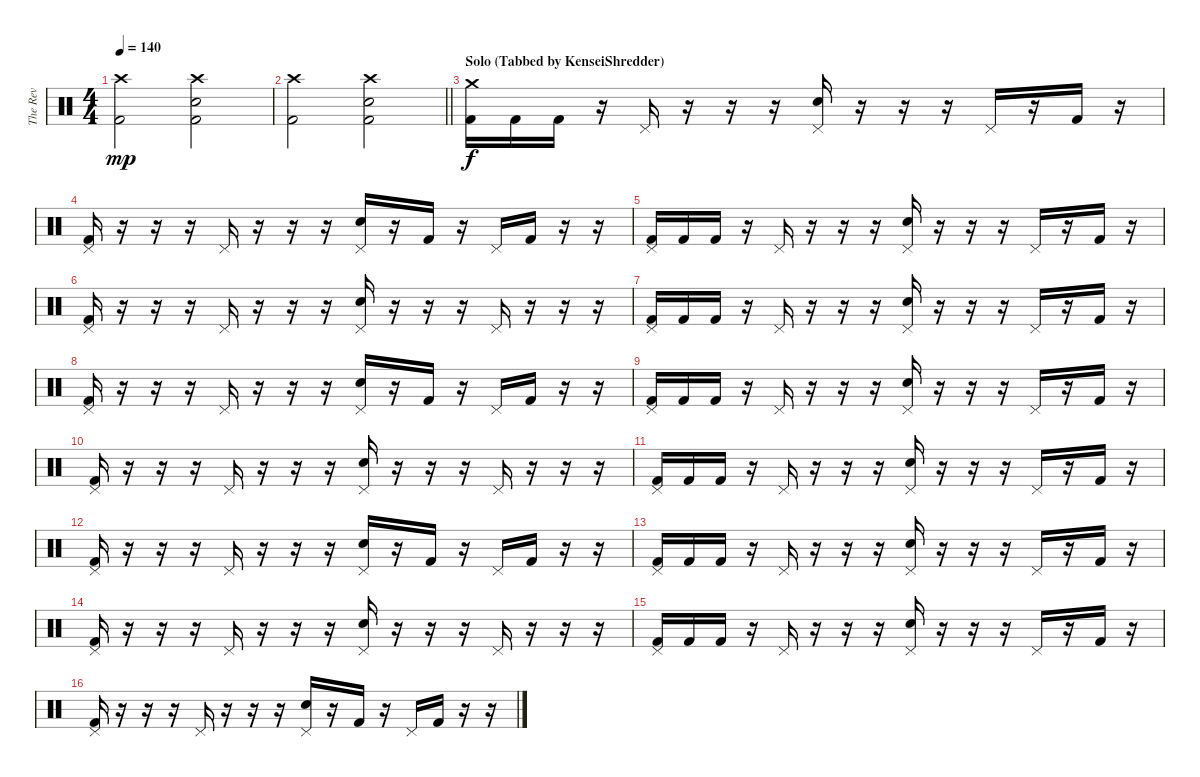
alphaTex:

\track ("The Rev" "The Rev") {instrument percussion}
\staff {score}
\articulation defaults
\ts (4 4)
\tempo 140
\clef neutral
\ks c
("Crash high (hit)" "Kick (hit) 2").2{dy mp} ("Crash high (hit)" "Electric Snare (hit)" "Kick (hit) 2").2 |
\barLineRight lightlight
("Crash high (hit)" "Kick (hit) 2").2 ("Crash high (hit)" "Electric Snare (hit)" "Kick (hit) 2").2 |
\section ("" "Solo (Tabbed by KenseiShredder)")
("Crash medium (hit)" "Kick (hit) 2").16{dy f} "Kick (hit) 2".16 "Kick (hit) 2".16 r.16 "Pedal Hi-Hat (hit)".16 r.16 r.16 r.16 ("Pedal Hi-Hat (hit)" "Electric Snare (hit)").16 r.16 r.16 r.16 "Pedal Hi-Hat (hit)".16 r.16 "Kick (hit) 2".16 r.16 |
("Pedal Hi-Hat (hit)" "Kick (hit) 2").16 r.16 r.16 r.16 "Pedal Hi-Hat (hit)".16 r.16 r.16 r.16 ("Pedal Hi-Hat (hit)" "Electric Snare (hit)").16 r.16 "Kick (hit) 2".16 r.16 "Pedal Hi-Hat (hit)".16 "Kick (hit) 2".16 r.16 r.16 |
("Pedal Hi-Hat (hit)" "Kick (hit) 2").16 "Kick (hit) 2".16 "Kick (hit) 2".16 r.16 "Pedal Hi-Hat (hit)".16 r.16 r.16 r.16 ("Pedal Hi-Hat (hit)" "Electric Snare (hit)").16 r.16 r.16 r.16 "Pedal Hi-Hat (hit)".16 r.16 "Kick (hit) 2".16 r.16 |
("Pedal Hi-Hat (hit)" "Kick (hit) 2").16 r.16 r.16 r.16 "Pedal Hi-Hat (hit)".16 r.16 r.16 r.16 ("Pedal Hi-Hat (hit)" "Electric Snare (hit)").16 r.16 r.16 r.16 "Pedal Hi-Hat (hit)".16 r.16 r.16 r.16 |
("Pedal Hi-Hat (hit)" "Kick (hit) 2").16 "Kick (hit) 2".16 "Kick (hit) 2".16 r.16 "Pedal Hi-Hat (hit)".16 r.16 r.16 r.16 ("Pedal Hi-Hat (hit)" "Electric Snare (hit)").16 r.16 r.16 r.16 "Pedal Hi-Hat (hit)".16 r.16 "Kick (hit) 2".16 r.16 |
("Pedal Hi-Hat (hit)" "Kick (hit) 2").16 r.16 r.16 r.16 "Pedal Hi-Hat (hit)".16 r.16 r.16 r.16 ("Pedal Hi-Hat (hit)" "Electric Snare (hit)").16 r.16 "Kick (hit) 2".16 r.16 "Pedal Hi-Hat (hit)".16 "Kick (hit) 2".16 r.16 r.16 |
("Pedal Hi-Hat (hit)" "Kick (hit) 2").16 "Kick (hit) 2".16 "Kick (hit) 2".16 r.16 "Pedal Hi-Hat (hit)".16 r.16 r.16 r.16 ("Pedal Hi-Hat (hit)" "Electric Snare (hit)").16 r.16 r.16 r.16 "Pedal Hi-Hat (hit)".16 r.16 "Kick (hit) 2".16 r.16 |
("Pedal Hi-Hat (hit)" "Kick (hit) 2").16 r.16 r.16 r.16 "Pedal Hi-Hat (hit)".16 r.16 r.16 r.16 ("Pedal Hi-Hat (hit)" "Electric Snare (hit)").16 r.16 r.16 r.16 "Pedal Hi-Hat (hit)".16 r.16 r.16 r.16 |
("Pedal Hi-Hat (hit)" "Kick (hit) 2").16 "Kick (hit) 2".16 "Kick (hit) 2".16 r.16 "Pedal Hi-Hat (hit)".16 r.16 r.16 r.16 ("Pedal Hi-Hat (hit)" "Electric Snare (hit)").16 r.16 r.16 r.16 "Pedal Hi-Hat (hit)".16 r.16 "Kick (hit) 2".16 r.16 |
("Pedal Hi-Hat (hit)" "Kick (hit) 2").16 r.16 r.16 r.16 "Pedal Hi-Hat (hit)".16 r.16 r.16 r.16 ("Pedal Hi-Hat (hit)" "Electric Snare (hit)").16 r.16 "Kick (hit) 2".16 r.16 "Pedal Hi-Hat (hit)".16 "Kick (hit) 2".16 r.16 r.16 |
("Pedal Hi-Hat (hit)" "Kick (hit) 2").16 "Kick (hit) 2".16 "Kick (hit) 2".16 r.16 "Pedal Hi-Hat (hit)".16 r.16 r.16 r.16 ("Pedal Hi-Hat (hit)" "Electric Snare (hit)").16 r.16 r.16 r.16 "Pedal Hi-Hat (hit)".16 r.16 "Kick (hit) 2".16 r.16 |
("Pedal Hi-Hat (hit)" "Kick (hit) 2").16 r.16 r.16 r.16 "Pedal Hi-Hat (hit)".16 r.16 r.16 r.16 ("Pedal Hi-Hat (hit)" "Electric Snare (hit)").16 r.16 r.16 r.16 "Pedal Hi-Hat (hit)".16 r.16 r.16 r.16 |
("Pedal Hi-Hat (hit)" "Kick (hit) 2").16 "Kick (hit) 2".16 "Kick (hit) 2".16 r.16 "Pedal Hi-Hat (hit)".16 r.16 r.16 r.16 ("Pedal Hi-Hat (hit)" "Electric Snare (hit)").16 r.16 r.16 r.16 "Pedal Hi-Hat (hit)".16 r.16 "Kick (hit) 2".16 r.16 |
("Pedal Hi-Hat (hit)" "Kick (hit) 2").16 r.16 r.16 r.16 "Pedal Hi-Hat (hit)".16 r.16 r.16 r.16 ("Pedal Hi-Hat (hit)" "Electric Snare (hit)").16 r.16 "Kick (hit) 2".16 r.16 "Pedal Hi-Hat (hit)".16 "Kick (hit) 2".16 r.16 r.16
